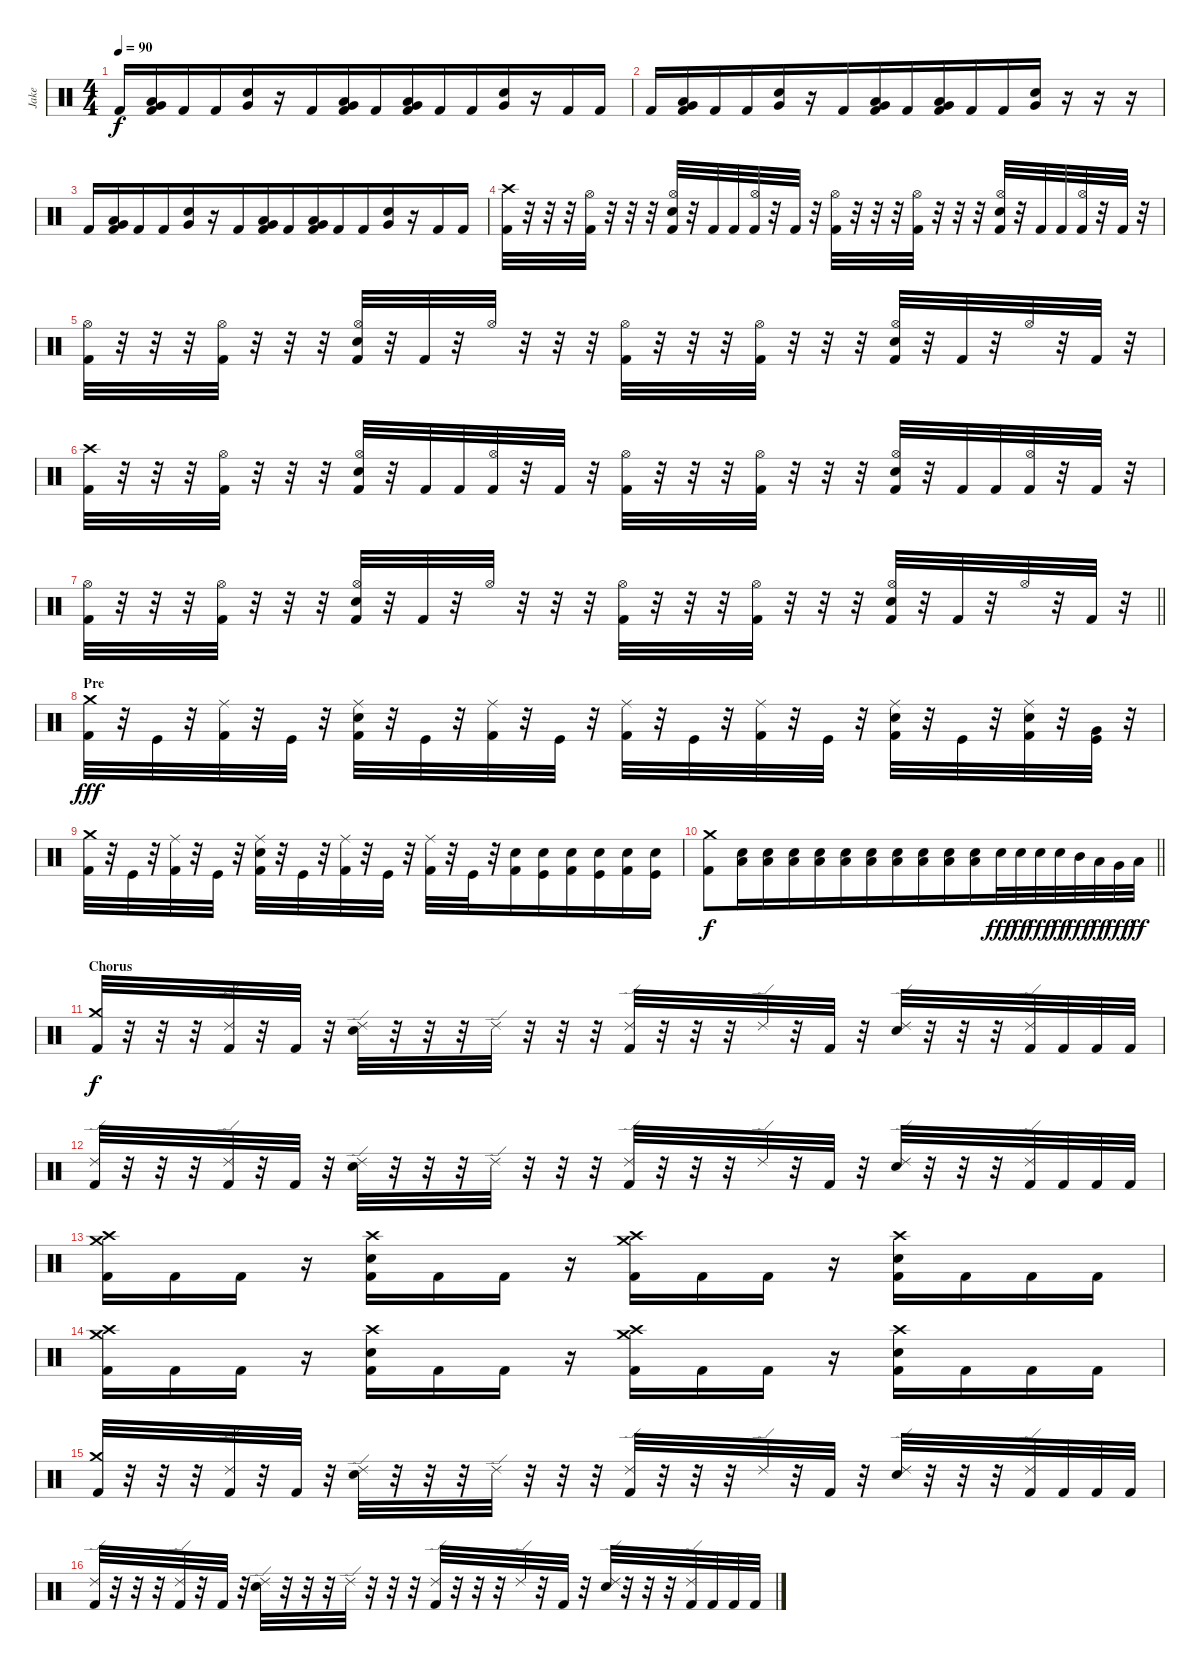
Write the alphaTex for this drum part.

\track ("Jake" "Jake") {instrument percussion}
\staff {score}
\articulation defaults
\ts (4 4)
\tempo 90
\clef neutral
\ks c "Kick (hit) 2".16{dy f beam Up beam merge}
("Low Tom (hit)" "Very Low Tom (hit)" "Kick (hit) 2").16{beam Up beam merge} "Kick (hit) 2".16{beam Up beam merge} "Kick (hit) 2".16{beam Up beam merge} ("Electric Snare (hit)" "Very Low Tom (hit)").16 r.16 "Kick (hit) 2".16{beam Up beam merge} ("Low Tom (hit)" "Very Low Tom (hit)" "Kick (hit) 2").16{beam Up beam merge} "Kick (hit) 2".16{beam Up beam merge} ("Very Low Tom (hit)" "Low Floor Tom (hit)" "Kick (hit) 2").16{beam Up beam merge} "Kick (hit) 2".16{beam Up beam merge} "Kick (hit) 2".16{beam Up beam merge} ("Electric Snare (hit)" "Very Low Tom (hit)").16 r.16 "Kick (hit) 2".16{beam Up beam merge} "Kick (hit) 2".16{beam Up} |
"Kick (hit) 2".16{beam Up beam merge} ("Low Tom (hit)" "Very Low Tom (hit)" "Kick (hit) 2").16{beam Up beam merge} "Kick (hit) 2".16{beam Up beam merge} "Kick (hit) 2".16{beam Up beam merge} ("Electric Snare (hit)" "Very Low Tom (hit)").16 r.16 "Kick (hit) 2".16{beam Up beam merge} ("Low Tom (hit)" "Very Low Tom (hit)" "Kick (hit) 2").16{beam Up beam merge} "Kick (hit) 2".16{beam Up beam merge} ("Very Low Tom (hit)" "Low Floor Tom (hit)" "Kick (hit) 2").16{beam Up beam merge} "Kick (hit) 2".16{beam Up beam merge} "Kick (hit) 2".16{beam Up beam merge} ("Electric Snare (hit)" "Very Low Tom (hit)").16 r.16 r.16 r.16 |
"Kick (hit) 2".16{beam Up beam merge} ("Low Tom (hit)" "Very Low Tom (hit)" "Kick (hit) 2").16{beam Up beam merge} "Kick (hit) 2".16{beam Up beam merge} "Kick (hit) 2".16{beam Up beam merge} ("Electric Snare (hit)" "Very Low Tom (hit)").16 r.16 "Kick (hit) 2".16{beam Up beam merge} ("Low Tom (hit)" "Very Low Tom (hit)" "Kick (hit) 2").16{beam Up beam merge} "Kick (hit) 2".16{beam Up beam merge} ("Very Low Tom (hit)" "Low Floor Tom (hit)" "Kick (hit) 2").16{beam Up beam merge} "Kick (hit) 2".16{beam Up beam merge} "Kick (hit) 2".16{beam Up beam merge} ("Electric Snare (hit)" "Very Low Tom (hit)").16 r.16 "Kick (hit) 2".16{beam Up beam merge} "Kick (hit) 2".16{beam Up} |
("Crash high (hit)" "Kick (hit) 2").32 r.32 r.32 r.32 ("Hi-Hat (open)" "Kick (hit) 2").32 r.32 r.32 r.32 ("Hi-Hat (open)" "Electric Snare (hit)" "Kick (hit) 2").32 r.32 "Kick (hit) 2".32{beam merge} "Kick (hit) 2".32{beam merge} ("Hi-Hat (open)" "Kick (hit) 2").32 r.32 "Kick (hit) 2".32{beam Up} r.32 ("Hi-Hat (open)" "Kick (hit) 2").32 r.32 r.32 r.32 ("Hi-Hat (open)" "Kick (hit) 2").32 r.32 r.32 r.32 ("Hi-Hat (open)" "Electric Snare (hit)" "Kick (hit) 2").32 r.32 "Kick (hit) 2".32{beam merge} "Kick (hit) 2".32{beam merge} ("Hi-Hat (open)" "Kick (hit) 2").32 r.32 "Kick (hit) 2".32{beam Up} r.32 |
("Hi-Hat (open)" "Kick (hit) 2").32 r.32 r.32 r.32 ("Hi-Hat (open)" "Kick (hit) 2").32 r.32 r.32 r.32 ("Hi-Hat (open)" "Electric Snare (hit)" "Kick (hit) 2").32 r.32 "Kick (hit) 2".32{beam Up} r.32 "Hi-Hat (open)".32 r.32 r.32 r.32 ("Hi-Hat (open)" "Kick (hit) 2").32 r.32 r.32 r.32 ("Hi-Hat (open)" "Kick (hit) 2").32 r.32 r.32 r.32 ("Hi-Hat (open)" "Electric Snare (hit)" "Kick (hit) 2").32 r.32 "Kick (hit) 2".32{beam Up} r.32 "Hi-Hat (open)".32 r.32 "Kick (hit) 2".32{beam Up} r.32 |
("Crash high (hit)" "Kick (hit) 2").32 r.32 r.32 r.32 ("Hi-Hat (open)" "Kick (hit) 2").32 r.32 r.32 r.32 ("Hi-Hat (open)" "Electric Snare (hit)" "Kick (hit) 2").32 r.32 "Kick (hit) 2".32{beam merge} "Kick (hit) 2".32{beam merge} ("Hi-Hat (open)" "Kick (hit) 2").32 r.32 "Kick (hit) 2".32{beam Up} r.32 ("Hi-Hat (open)" "Kick (hit) 2").32 r.32 r.32 r.32 ("Hi-Hat (open)" "Kick (hit) 2").32 r.32 r.32 r.32 ("Hi-Hat (open)" "Electric Snare (hit)" "Kick (hit) 2").32 r.32 "Kick (hit) 2".32{beam merge} "Kick (hit) 2".32{beam merge} ("Hi-Hat (open)" "Kick (hit) 2").32 r.32 "Kick (hit) 2".32{beam Up} r.32 |
\barLineRight lightlight
("Hi-Hat (open)" "Kick (hit) 2").32 r.32 r.32 r.32 ("Hi-Hat (open)" "Kick (hit) 2").32 r.32 r.32 r.32 ("Hi-Hat (open)" "Electric Snare (hit)" "Kick (hit) 2").32 r.32 "Kick (hit) 2".32{beam Up} r.32 "Hi-Hat (open)".32 r.32 r.32 r.32 ("Hi-Hat (open)" "Kick (hit) 2").32 r.32 r.32 r.32 ("Hi-Hat (open)" "Kick (hit) 2").32 r.32 r.32 r.32 ("Hi-Hat (open)" "Electric Snare (hit)" "Kick (hit) 2").32 r.32 "Kick (hit) 2".32{beam Up} r.32 "Hi-Hat (open)".32 r.32 "Kick (hit) 2".32{beam Up} r.32 |
\section ("" "Pre")
("Crash medium (hit)" "Kick (hit) 2").32{dy fff} r.32 "Kick (hit)".32 r.32 ("Ride (middle)" "Kick (hit) 2").32 r.32 "Kick (hit)".32 r.32 ("Ride (middle)" "Electric Snare (hit)" "Kick (hit) 2").32 r.32 "Kick (hit)".32 r.32 ("Ride (middle)" "Kick (hit) 2").32 r.32 "Kick (hit)".32 r.32 ("Ride (middle)" "Kick (hit) 2").32 r.32 "Kick (hit)".32 r.32 ("Ride (middle)" "Kick (hit) 2").32 r.32 "Kick (hit)".32 r.32 ("Ride (middle)" "Electric Snare (hit)" "Kick (hit) 2").32 r.32 "Kick (hit)".32 r.32 ("Ride (middle)" "Electric Snare (hit)" "Kick (hit) 2").32 r.32 ("Very Low Tom (hit)" "Kick (hit)").32 r.32 |
("Crash medium (hit)" "Kick (hit) 2").32 r.32 "Kick (hit)".32 r.32 ("Ride (middle)" "Kick (hit) 2").32 r.32 "Kick (hit)".32 r.32 ("Ride (middle)" "Electric Snare (hit)" "Kick (hit) 2").32 r.32 "Kick (hit)".32 r.32 ("Ride (middle)" "Kick (hit) 2").32 r.32 "Kick (hit)".32 r.32 ("Ride (middle)" "Kick (hit) 2").32 r.32 "Kick (hit)".32 r.32 ("Electric Snare (hit)" "Kick (hit) 2").16 ("Electric Snare (hit)" "Kick (hit)").16{beam merge} ("Electric Snare (hit)" "Kick (hit) 2").16 ("Electric Snare (hit)" "Kick (hit)").16 ("Electric Snare (hit)" "Kick (hit) 2").16 ("Electric Snare (hit)" "Kick (hit)").16 |
\barLineRight lightlight
("Crash medium (hit)" "Kick (hit) 2").8{dy f beam merge} ("Low Floor Tom (hit)" "Electric Snare (hit)").16{beam merge} ("Low Floor Tom (hit)" "Electric Snare (hit)").16{beam merge} ("Low Floor Tom (hit)" "Electric Snare (hit)").16{beam merge} ("Low Floor Tom (hit)" "Electric Snare (hit)").16{beam merge} ("Low Floor Tom (hit)" "Electric Snare (hit)").16{beam merge} ("Low Floor Tom (hit)" "Electric Snare (hit)").16{beam merge} ("Low Floor Tom (hit)" "Electric Snare (hit)").16{beam merge} ("Low Floor Tom (hit)" "Electric Snare (hit)").16{beam merge} ("Low Floor Tom (hit)" "Electric Snare (hit)").16{beam merge} ("Low Floor Tom (hit)" "Electric Snare (hit)").16{beam merge} "Electric Snare (hit)".32{dy fff} "Electric Snare (hit)".32{dy ff} "Electric Snare (hit)".32{dy fff} "Electric Snare (hit)".32{dy ff} "Mid Tom (hit)".32{dy fff} "Low Tom (hit)".32{dy ff} "Very Low Tom (hit)".32{dy fff} "Low Floor Tom (hit)".32{dy ff} |
\section ("" "Chorus")
("Crash medium (hit)" "Kick (hit) 2").32{dy f} r.32 r.32 r.32 ("Ride (edge) 2" "Kick (hit) 2").32 r.32 "Kick (hit) 2".32{beam Up} r.32 ("Ride (edge) 2" "Electric Snare (hit)").32 r.32 r.32 r.32 "Ride (edge) 2".32 r.32 r.32 r.32 ("Ride (edge) 2" "Kick (hit) 2").32 r.32 r.32 r.32 "Ride (edge) 2".32 r.32 "Kick (hit) 2".32{beam Up} r.32 ("Ride (edge) 2" "Electric Snare (hit)").32 r.32 r.32 r.32 ("Ride (edge) 2" "Kick (hit) 2").32{beam merge} "Kick (hit) 2".32{beam merge} "Kick (hit) 2".32{beam merge} "Kick (hit) 2".32 |
("Ride (edge) 2" "Kick (hit) 2").32 r.32 r.32 r.32 ("Ride (edge) 2" "Kick (hit) 2").32 r.32 "Kick (hit) 2".32{beam Up} r.32 ("Ride (edge) 2" "Electric Snare (hit)").32 r.32 r.32 r.32 "Ride (edge) 2".32 r.32 r.32 r.32 ("Ride (edge) 2" "Kick (hit) 2").32 r.32 r.32 r.32 "Ride (edge) 2".32 r.32 "Kick (hit) 2".32{beam Up} r.32 ("Ride (edge) 2" "Electric Snare (hit)").32 r.32 r.32 r.32 ("Ride (edge) 2" "Kick (hit) 2").32{beam merge} "Kick (hit) 2".32{beam merge} "Kick (hit) 2".32{beam merge} "Kick (hit) 2".32 |
("Crash medium (hit)" "Crash high (hit)" "Kick (hit) 2").16{beam merge} "Kick (hit) 2".16{beam merge} "Kick (hit) 2".16 r.16 ("Crash high (hit)" "Electric Snare (hit)" "Kick (hit) 2").16{beam merge} "Kick (hit) 2".16{beam merge} "Kick (hit) 2".16 r.16 ("Crash medium (hit)" "Crash high (hit)" "Kick (hit) 2").16{beam merge} "Kick (hit) 2".16{beam merge} "Kick (hit) 2".16 r.16 ("Crash high (hit)" "Electric Snare (hit)" "Kick (hit) 2").16{beam merge} "Kick (hit) 2".16{beam merge} "Kick (hit) 2".16{beam merge} "Kick (hit) 2".16 |
("Crash medium (hit)" "Crash high (hit)" "Kick (hit) 2").16{beam merge} "Kick (hit) 2".16{beam merge} "Kick (hit) 2".16 r.16 ("Crash high (hit)" "Electric Snare (hit)" "Kick (hit) 2").16{beam merge} "Kick (hit) 2".16{beam merge} "Kick (hit) 2".16 r.16 ("Crash medium (hit)" "Crash high (hit)" "Kick (hit) 2").16{beam merge} "Kick (hit) 2".16{beam merge} "Kick (hit) 2".16 r.16 ("Crash high (hit)" "Electric Snare (hit)" "Kick (hit) 2").16{beam merge} "Kick (hit) 2".16{beam merge} "Kick (hit) 2".16{beam merge} "Kick (hit) 2".16 |
("Crash medium (hit)" "Kick (hit) 2").32 r.32 r.32 r.32 ("Ride (edge) 2" "Kick (hit) 2").32 r.32 "Kick (hit) 2".32{beam Up} r.32 ("Ride (edge) 2" "Electric Snare (hit)").32 r.32 r.32 r.32 "Ride (edge) 2".32 r.32 r.32 r.32 ("Ride (edge) 2" "Kick (hit) 2").32 r.32 r.32 r.32 "Ride (edge) 2".32 r.32 "Kick (hit) 2".32{beam Up} r.32 ("Ride (edge) 2" "Electric Snare (hit)").32 r.32 r.32 r.32 ("Ride (edge) 2" "Kick (hit) 2").32{beam merge} "Kick (hit) 2".32{beam merge} "Kick (hit) 2".32{beam merge} "Kick (hit) 2".32 |
("Ride (edge) 2" "Kick (hit) 2").32 r.32 r.32 r.32 ("Ride (edge) 2" "Kick (hit) 2").32 r.32 "Kick (hit) 2".32{beam Up} r.32 ("Ride (edge) 2" "Electric Snare (hit)").32 r.32 r.32 r.32 "Ride (edge) 2".32 r.32 r.32 r.32 ("Ride (edge) 2" "Kick (hit) 2").32 r.32 r.32 r.32 "Ride (edge) 2".32 r.32 "Kick (hit) 2".32{beam Up} r.32 ("Ride (edge) 2" "Electric Snare (hit)").32 r.32 r.32 r.32 ("Ride (edge) 2" "Kick (hit) 2").32{beam merge} "Kick (hit) 2".32{beam merge} "Kick (hit) 2".32{beam merge} "Kick (hit) 2".32
